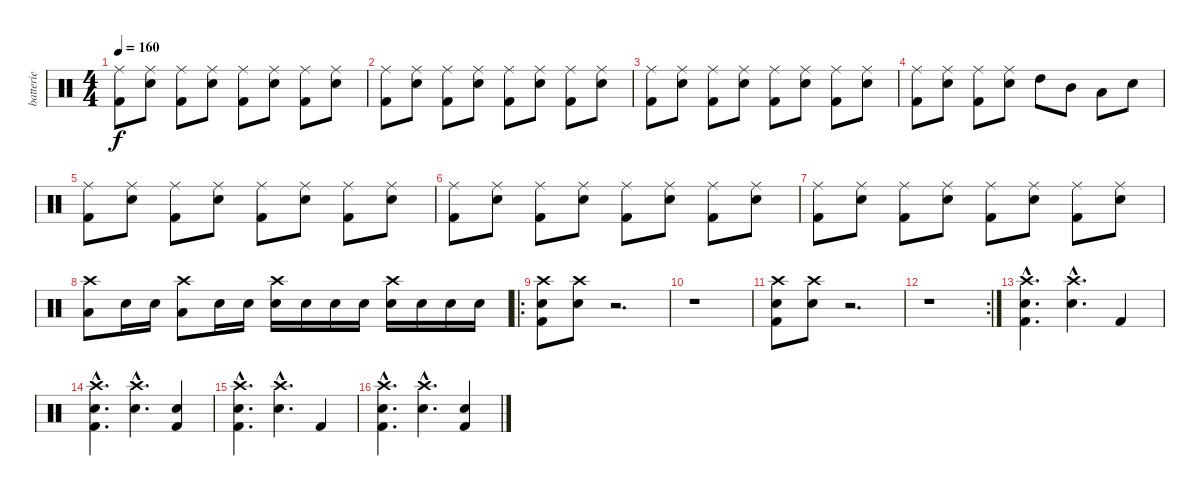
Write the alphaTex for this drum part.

\track ("batterie" "batterie") {instrument percussion}
\staff {score}
\articulation defaults
\ts (4 4)
\tempo 160
\clef neutral
\ks c
("Kick (hit) 2" "Ride (middle)").8{dy f} ("Snare (hit) 2" "Ride (middle)").8 ("Kick (hit) 2" "Ride (middle)").8 ("Snare (hit) 2" "Ride (middle)").8 ("Kick (hit) 2" "Ride (middle)").8 ("Snare (hit) 2" "Ride (middle)").8 ("Kick (hit) 2" "Ride (middle)").8 ("Snare (hit) 2" "Ride (middle)").8 |
("Kick (hit) 2" "Ride (middle)").8 ("Snare (hit) 2" "Ride (middle)").8 ("Kick (hit) 2" "Ride (middle)").8 ("Snare (hit) 2" "Ride (middle)").8 ("Kick (hit) 2" "Ride (middle)").8 ("Snare (hit) 2" "Ride (middle)").8 ("Kick (hit) 2" "Ride (middle)").8 ("Snare (hit) 2" "Ride (middle)").8 |
("Kick (hit) 2" "Ride (middle)").8 ("Snare (hit) 2" "Ride (middle)").8 ("Kick (hit) 2" "Ride (middle)").8 ("Snare (hit) 2" "Ride (middle)").8 ("Kick (hit) 2" "Ride (middle)").8 ("Snare (hit) 2" "Ride (middle)").8 ("Kick (hit) 2" "Ride (middle)").8 ("Snare (hit) 2" "Ride (middle)").8 |
("Kick (hit) 2" "Ride (middle)").8 ("Snare (hit) 2" "Ride (middle)").8 ("Kick (hit) 2" "Ride (middle)").8 ("Snare (hit) 2" "Ride (middle)").8 "High Tom (hit)".8 "Mid Tom (hit)".8 "Low Tom (hit)".8 "Snare (hit) 2".8 |
("Kick (hit) 2" "Ride (middle)").8 ("Snare (hit) 2" "Ride (middle)").8 ("Kick (hit) 2" "Ride (middle)").8 ("Snare (hit) 2" "Ride (middle)").8 ("Kick (hit) 2" "Ride (middle)").8 ("Snare (hit) 2" "Ride (middle)").8 ("Kick (hit) 2" "Ride (middle)").8 ("Snare (hit) 2" "Ride (middle)").8 |
("Kick (hit) 2" "Ride (middle)").8 ("Snare (hit) 2" "Ride (middle)").8 ("Kick (hit) 2" "Ride (middle)").8 ("Snare (hit) 2" "Ride (middle)").8 ("Kick (hit) 2" "Ride (middle)").8 ("Snare (hit) 2" "Ride (middle)").8 ("Kick (hit) 2" "Ride (middle)").8 ("Snare (hit) 2" "Ride (middle)").8 |
("Kick (hit) 2" "Ride (middle)").8 ("Snare (hit) 2" "Ride (middle)").8 ("Kick (hit) 2" "Ride (middle)").8 ("Snare (hit) 2" "Ride (middle)").8 ("Kick (hit) 2" "Ride (middle)").8 ("Snare (hit) 2" "Ride (middle)").8 ("Kick (hit) 2" "Ride (middle)").8 ("Snare (hit) 2" "Ride (middle)").8 |
("Low Tom (hit)" "Crash high (hit)").8 "Snare (hit) 2".16 "Snare (hit) 2".16 ("Low Tom (hit)" "Crash high (hit)").8 "Snare (hit) 2".16 "Snare (hit) 2".16 ("Snare (hit) 2" "Crash high (hit)").16 "Snare (hit) 2".16 "Snare (hit) 2".16 "Snare (hit) 2".16 ("Snare (hit) 2" "Crash high (hit)").16 "Snare (hit) 2".16 "Snare (hit) 2".16 "Snare (hit) 2".16 |
\ro
("Kick (hit) 2" "Snare (hit) 2" "Crash high (hit)").8 ("Snare (hit) 2" "Crash high (hit)").8 r.2{d} |
r.1 |
("Kick (hit) 2" "Snare (hit) 2" "Crash high (hit)").8 ("Snare (hit) 2" "Crash high (hit)").8 r.2{d} |
\rc 2
r.1 |
("Kick (hit) 2"{hac} "Snare (hit) 2"{hac} "Crash high (hit)"{hac}).4{d} ("Snare (hit) 2"{hac} "Crash high (hit)"{hac}).4{d} "Kick (hit) 2".4 |
("Kick (hit) 2"{hac} "Snare (hit) 2"{hac} "Crash high (hit)"{hac}).4{d} ("Snare (hit) 2"{hac} "Crash high (hit)"{hac}).4{d} ("Snare (hit) 2" "Kick (hit) 2").4 |
("Kick (hit) 2"{hac} "Snare (hit) 2"{hac} "Crash high (hit)"{hac}).4{d} ("Snare (hit) 2"{hac} "Crash high (hit)"{hac}).4{d} "Kick (hit) 2".4 |
("Kick (hit) 2"{hac} "Snare (hit) 2"{hac} "Crash high (hit)"{hac}).4{d} ("Snare (hit) 2"{hac} "Crash high (hit)"{hac}).4{d} ("Snare (hit) 2" "Kick (hit) 2").4
